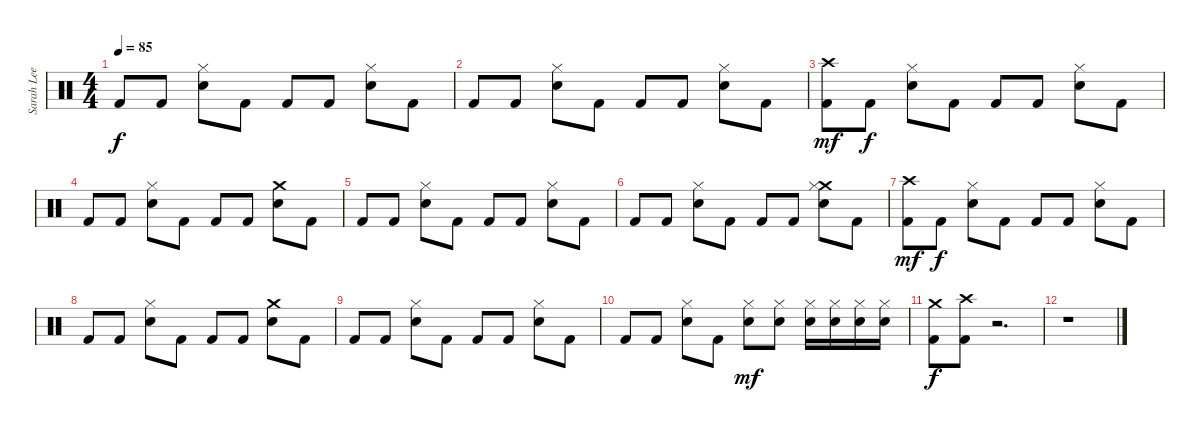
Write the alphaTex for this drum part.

\track ("Sarah Lee Lucas" "Sarah Lee ") {instrument percussion}
\staff {score}
\articulation defaults
\ts (4 4)
\tempo 85
\clef neutral
\ks c "Kick (hit) 2".8{dy f} "Kick (hit) 2".8
("Hi-Hat (closed)" "Electric Snare (hit)").8 "Kick (hit) 2".8 "Kick (hit) 2".8 "Kick (hit) 2".8 ("Hi-Hat (closed)" "Electric Snare (hit)").8 "Kick (hit) 2".8 |
"Kick (hit) 2".8 "Kick (hit) 2".8 ("Hi-Hat (closed)" "Electric Snare (hit)").8 "Kick (hit) 2".8 "Kick (hit) 2".8 "Kick (hit) 2".8 ("Hi-Hat (closed)" "Electric Snare (hit)").8 "Kick (hit) 2".8 |
("Crash high (hit)" "Kick (hit) 2").8{dy mf} "Kick (hit) 2".8{dy f} ("Hi-Hat (closed)" "Electric Snare (hit)").8 "Kick (hit) 2".8 "Kick (hit) 2".8 "Kick (hit) 2".8 ("Hi-Hat (closed)" "Electric Snare (hit)").8 "Kick (hit) 2".8 |
"Kick (hit) 2".8 "Kick (hit) 2".8 ("Hi-Hat (closed)" "Electric Snare (hit)").8 "Kick (hit) 2".8 "Kick (hit) 2".8 "Kick (hit) 2".8 ("Crash medium (hit)" "Electric Snare (hit)").8 "Kick (hit) 2".8 |
"Kick (hit) 2".8 "Kick (hit) 2".8 ("Hi-Hat (closed)" "Electric Snare (hit)").8 "Kick (hit) 2".8 "Kick (hit) 2".8 "Kick (hit) 2".8 ("Hi-Hat (closed)" "Electric Snare (hit)").8 "Kick (hit) 2".8 |
"Kick (hit) 2".8 "Kick (hit) 2".8 ("Hi-Hat (closed)" "Electric Snare (hit)").8 "Kick (hit) 2".8 "Kick (hit) 2".8 "Kick (hit) 2".8 ("Crash medium (hit)" "Hi-Hat (closed)" "Electric Snare (hit)").8 "Kick (hit) 2".8 |
("Crash high (hit)" "Kick (hit) 2").8{dy mf} "Kick (hit) 2".8{dy f} ("Hi-Hat (closed)" "Electric Snare (hit)").8 "Kick (hit) 2".8 "Kick (hit) 2".8 "Kick (hit) 2".8 ("Hi-Hat (closed)" "Electric Snare (hit)").8 "Kick (hit) 2".8 |
"Kick (hit) 2".8 "Kick (hit) 2".8 ("Hi-Hat (closed)" "Electric Snare (hit)").8 "Kick (hit) 2".8 "Kick (hit) 2".8 "Kick (hit) 2".8 ("Crash medium (hit)" "Electric Snare (hit)").8 "Kick (hit) 2".8 |
"Kick (hit) 2".8 "Kick (hit) 2".8 ("Hi-Hat (closed)" "Electric Snare (hit)").8 "Kick (hit) 2".8 "Kick (hit) 2".8 "Kick (hit) 2".8 ("Hi-Hat (closed)" "Electric Snare (hit)").8 "Kick (hit) 2".8 |
"Kick (hit) 2".8 "Kick (hit) 2".8 ("Hi-Hat (closed)" "Electric Snare (hit)").8 "Kick (hit) 2".8 ("Hi-Hat (closed)" "Electric Snare (hit)").8{dy mf} ("Hi-Hat (closed)" "Electric Snare (hit)").8 ("Hi-Hat (closed)" "Electric Snare (hit)").16 ("Hi-Hat (closed)" "Electric Snare (hit)").16 ("Hi-Hat (closed)" "Electric Snare (hit)").16 ("Hi-Hat (closed)" "Electric Snare (hit)").16 |
("Crash medium (hit)" "Kick (hit) 2").8{dy f} ("Crash high (hit)" "Kick (hit) 2").8 r.2{d} |
r.1
